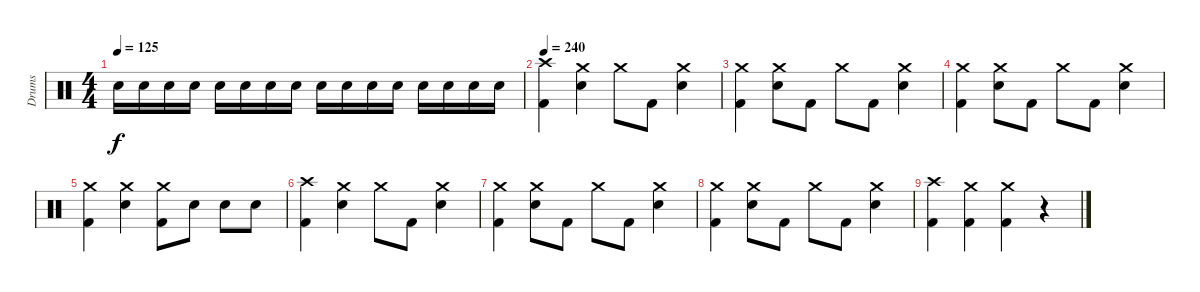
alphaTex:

\track ("Drums" "Drums") {instrument percussion}
\staff {score}
\articulation defaults
\ts (4 4)
\tempo 125
\clef neutral
\ks c "Snare (hit) 2".16{dy f} "Snare (hit) 2".16 "Snare (hit) 2".16 "Snare (hit) 2".16 "Snare (hit) 2".16 "Snare (hit) 2".16 "Snare (hit) 2".16 "Snare (hit) 2".16 "Snare (hit) 2".16 "Snare (hit) 2".16 "Snare (hit) 2".16 "Snare (hit) 2".16 "Snare (hit) 2".16 "Snare (hit) 2".16 "Snare (hit) 2".16 "Snare (hit) 2".16
|
\tempo 240
("Crash high (hit)" "Kick (hit) 2").4 ("Crash medium (hit)" "Snare (hit) 2").4 "Crash medium (hit)".8 "Kick (hit) 2".8 ("Crash medium (hit)" "Snare (hit) 2").4 |
("Crash medium (hit)" "Kick (hit) 2").4 ("Crash medium (hit)" "Snare (hit) 2").8 "Kick (hit) 2".8 "Crash medium (hit)".8 "Kick (hit) 2".8 ("Crash medium (hit)" "Snare (hit) 2").4 |
("Crash medium (hit)" "Kick (hit) 2").4 ("Crash medium (hit)" "Snare (hit) 2").8 "Kick (hit) 2".8 "Crash medium (hit)".8 "Kick (hit) 2".8 ("Crash medium (hit)" "Snare (hit) 2").4 |
("Crash medium (hit)" "Kick (hit) 2").4 ("Crash medium (hit)" "Snare (hit) 2").4 ("Crash medium (hit)" "Kick (hit) 2").8 "Snare (hit) 2".8 "Snare (hit) 2".8 "Snare (hit) 2".8 |
("Crash high (hit)" "Kick (hit) 2").4 ("Crash medium (hit)" "Snare (hit) 2").4 "Crash medium (hit)".8 "Kick (hit) 2".8 ("Crash medium (hit)" "Snare (hit) 2").4 |
("Crash medium (hit)" "Kick (hit) 2").4 ("Crash medium (hit)" "Snare (hit) 2").8 "Kick (hit) 2".8 "Crash medium (hit)".8 "Kick (hit) 2".8 ("Crash medium (hit)" "Snare (hit) 2").4 |
("Crash medium (hit)" "Kick (hit) 2").4 ("Crash medium (hit)" "Snare (hit) 2").8 "Kick (hit) 2".8 "Crash medium (hit)".8 "Kick (hit) 2".8 ("Crash medium (hit)" "Snare (hit) 2").4 |
("Crash high (hit)" "Kick (hit) 2").4 ("Crash medium (hit)" "Kick (hit) 2").4 ("Crash medium (hit)" "Kick (hit) 2").4 r.4
